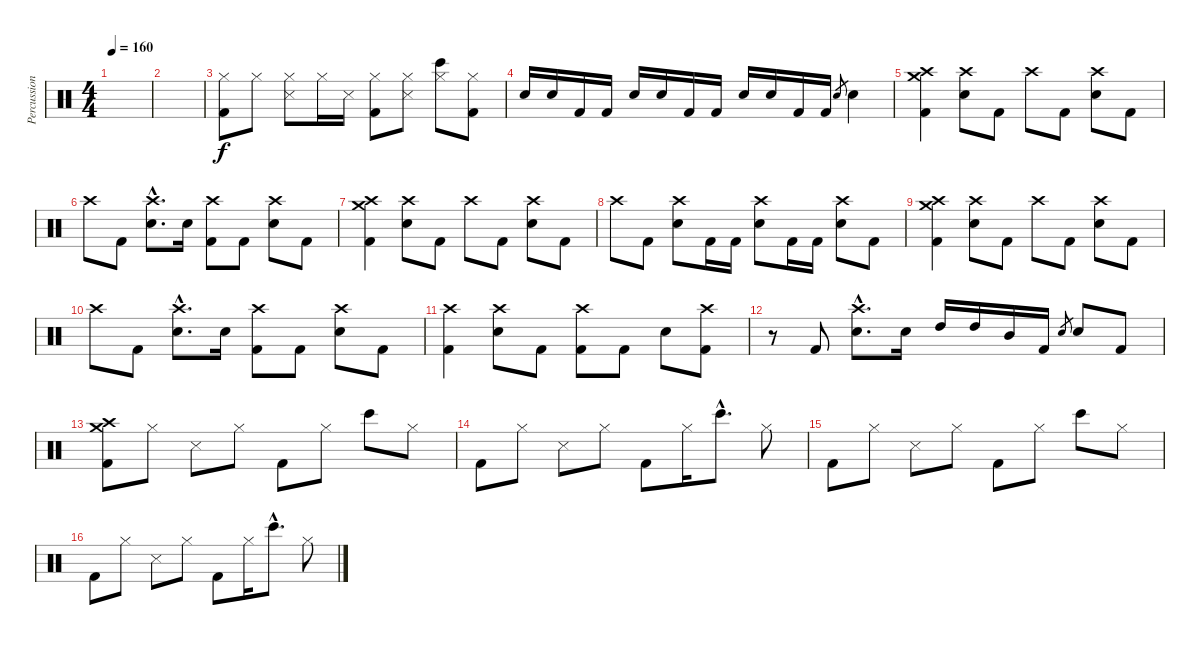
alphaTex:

\track ("Percussion" "Percussion") {instrument percussion}
\staff {score}
\articulation defaults
\ts (4 4)
\tempo 160
\clef neutral
\ks c
|
|
("Hi-Hat (closed)" "Kick (hit) 2").8 "Hi-Hat (closed)".8 ("Hi-Hat (closed)" "Snare (side stick) 3").8 "Hi-Hat (closed)".16 "Snare (side stick) 3".16 ("Hi-Hat (closed)" "Kick (hit) 2").8 ("Hi-Hat (closed)" "Snare (side stick) 3").8 ("Hi-Hat (closed)" "Bongo High (hit)").8 ("Hi-Hat (closed)" "Kick (hit) 2").8 |
"Electric Snare (hit)".16 "Electric Snare (hit)".16 "Kick (hit) 2".16 "Kick (hit) 2".16 "Electric Snare (hit)".16 "Electric Snare (hit)".16 "Kick (hit) 2".16 "Kick (hit) 2".16 "Electric Snare (hit)".16 "Electric Snare (hit)".16 "Kick (hit) 2".16 "Kick (hit) 2".16 "Electric Snare (hit)".8{gr} "Electric Snare (hit)".4 |
("Crash high (hit)" "Crash medium (hit)" "Kick (hit) 2").4 ("Crash high (hit)" "Electric Snare (hit)").8 "Kick (hit) 2".8 "Crash high (hit)".8 "Kick (hit) 2".8 ("Crash high (hit)" "Electric Snare (hit)").8 "Kick (hit) 2".8 |
"Crash high (hit)".8 "Kick (hit) 2".8 ("Crash high (hit)"{hac} "Electric Snare (hit)"{hac}).8{d} "Electric Snare (hit)".16 ("Crash high (hit)" "Kick (hit) 2").8 "Kick (hit) 2".8 ("Crash high (hit)" "Electric Snare (hit)").8 "Kick (hit) 2".8 |
("Crash high (hit)" "Crash medium (hit)" "Kick (hit) 2").4 ("Crash high (hit)" "Electric Snare (hit)").8 "Kick (hit) 2".8 "Crash high (hit)".8 "Kick (hit) 2".8 ("Crash high (hit)" "Electric Snare (hit)").8 "Kick (hit) 2".8 |
"Crash high (hit)".8 "Kick (hit) 2".8 ("Crash high (hit)" "Electric Snare (hit)").8 "Kick (hit) 2".16 "Kick (hit) 2".16 ("Crash high (hit)" "Electric Snare (hit)").8 "Kick (hit) 2".16 "Kick (hit) 2".16 ("Crash high (hit)" "Electric Snare (hit)").8 "Kick (hit) 2".8 |
("Crash high (hit)" "Crash medium (hit)" "Kick (hit) 2").4 ("Crash high (hit)" "Electric Snare (hit)").8 "Kick (hit) 2".8 "Crash high (hit)".8 "Kick (hit) 2".8 ("Crash high (hit)" "Electric Snare (hit)").8 "Kick (hit) 2".8 |
"Crash high (hit)".8 "Kick (hit) 2".8 ("Crash high (hit)"{hac} "Electric Snare (hit)"{hac}).8{d} "Electric Snare (hit)".16 ("Crash high (hit)" "Kick (hit) 2").8 "Kick (hit) 2".8 ("Crash high (hit)" "Electric Snare (hit)").8 "Kick (hit) 2".8 |
("Crash high (hit)" "Kick (hit) 2").4 ("Crash high (hit)" "Electric Snare (hit)").8 "Kick (hit) 2".8 ("Crash high (hit)" "Kick (hit) 2").8 "Kick (hit) 2".8 "Electric Snare (hit)".8 ("Crash high (hit)" "Kick (hit) 2").8 |
r.8 "Kick (hit) 2".8 ("Crash high (hit)"{hac} "Electric Snare (hit)"{hac}).8{d} "Electric Snare (hit)".16 "High Tom (hit)".16 "High Tom (hit)".16 "Mid Tom (hit)".16 "Kick (hit) 2".16 "Electric Snare (hit)".8{gr} "Electric Snare (hit)".8 "Kick (hit) 2".8 |
("Crash high (hit)" "Crash medium (hit)" "Kick (hit) 2").8 "Hi-Hat (closed)".8 "Snare (side stick) 3".8 "Hi-Hat (closed)".8 "Kick (hit) 2".8 "Hi-Hat (closed)".8 "Bongo High (hit)".8 "Hi-Hat (closed)".8 |
"Kick (hit) 2".8 "Hi-Hat (closed)".8 "Snare (side stick) 3".8 "Hi-Hat (closed)".8 "Kick (hit) 2".8 "Hi-Hat (closed)".16 "Bongo High (hit)"{hac}.8{d} "Hi-Hat (closed)".8 |
"Kick (hit) 2".8 "Hi-Hat (closed)".8 "Snare (side stick) 3".8 "Hi-Hat (closed)".8 "Kick (hit) 2".8 "Hi-Hat (closed)".8 "Bongo High (hit)".8 "Hi-Hat (closed)".8 |
"Kick (hit) 2".8 "Hi-Hat (closed)".8 "Snare (side stick) 3".8 "Hi-Hat (closed)".8 "Kick (hit) 2".8 "Hi-Hat (closed)".16 "Bongo High (hit)"{hac}.8{d} "Hi-Hat (closed)".8
